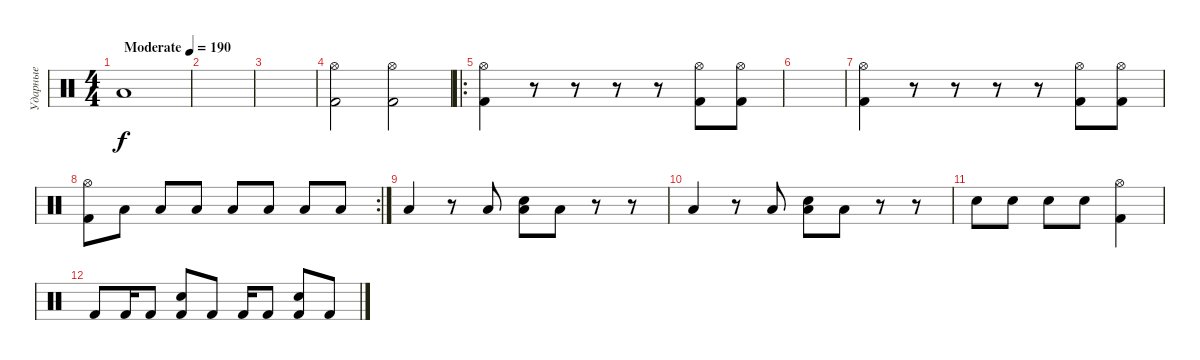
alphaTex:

\track ("Ударные" "Ударные") {instrument percussion}
\staff {score}
\articulation defaults
\ts (4 4)
\tempo (190 "Moderate")
\clef neutral
\ks c "Low Floor Tom (hit)".1{dy f}
|
|
|
("Hi-Hat (open)" "Kick (hit) 2").2 ("Hi-Hat (open)" "Kick (hit) 2").2 |
\ro
("Kick (hit) 2" "Hi-Hat (open)").4 r.8 r.8 r.8 r.8 ("Hi-Hat (open)" "Kick (hit) 2").8 ("Hi-Hat (open)" "Kick (hit) 2").8 |
|
("Hi-Hat (open)" "Kick (hit) 2").4 r.8 r.8 r.8 r.8 ("Hi-Hat (open)" "Kick (hit) 2").8 ("Hi-Hat (open)" "Kick (hit) 2").8 |
\rc 2
("Hi-Hat (open)" "Kick (hit) 2").8 "Low Floor Tom (hit)".8 "Low Floor Tom (hit)".8 "Low Floor Tom (hit)".8 "Low Floor Tom (hit)".8 "Low Floor Tom (hit)".8 "Low Floor Tom (hit)".8 "Low Floor Tom (hit)".8 |
"Low Floor Tom (hit)".4 r.8 "Low Floor Tom (hit)".8 ("Electric Snare (hit)" "Low Floor Tom (hit)").8 "Low Floor Tom (hit)".8 r.8 r.8 |
"Low Floor Tom (hit)".4 r.8 "Low Floor Tom (hit)".8 ("Electric Snare (hit)" "Low Floor Tom (hit)").8 "Low Floor Tom (hit)".8 r.8 r.8 |
"Snare (hit)".8 "Snare (hit)".8 "Snare (hit)".8 "Snare (hit)".8 ("Hi-Hat (open)" "Kick (hit) 2").4 |
"Kick (hit) 2".8 "Kick (hit) 2".16 "Kick (hit) 2".8 ("Snare (hit) 2" "Kick (hit) 2").8 "Kick (hit) 2".8 "Kick (hit) 2".16 "Kick (hit) 2".8 ("Snare (hit) 2" "Kick (hit) 2").8 "Kick (hit) 2".8
